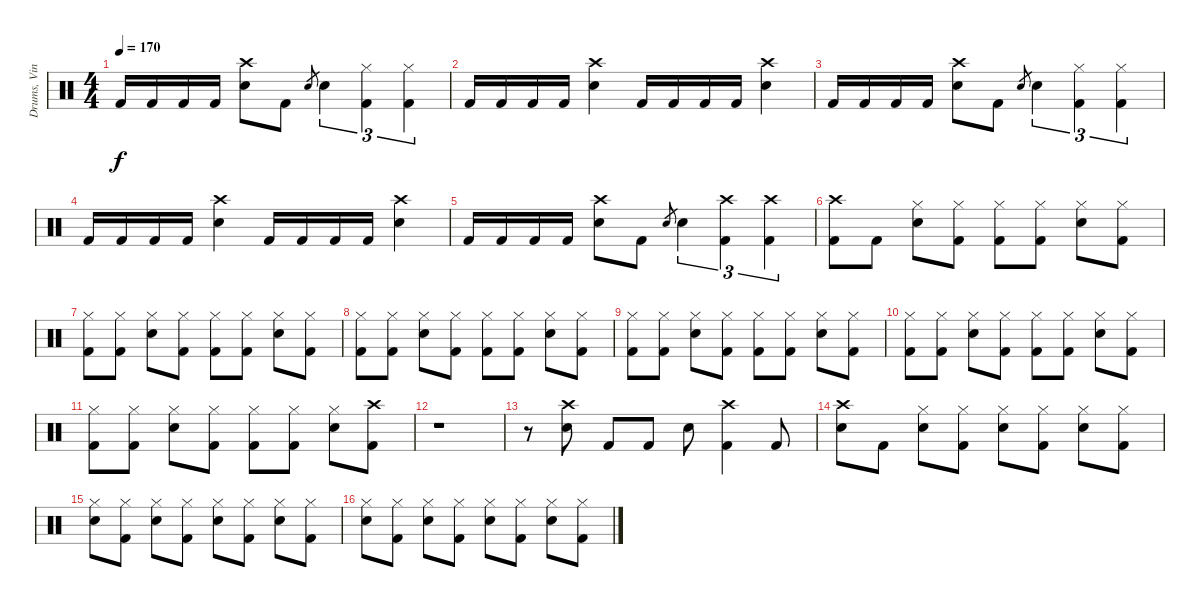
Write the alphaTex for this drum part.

\track ("Drums, Vinnie" "Drums, Vin") {instrument percussion}
\staff {score}
\articulation defaults
\ts (4 4)
\tempo 170
\clef neutral
\ks c "Kick (hit) 2".16{dy f} "Kick (hit) 2".16 "Kick (hit) 2".16 "Kick (hit) 2".16
("Crash high (hit)" "Electric Snare (hit)").8 "Kick (hit) 2".8 "Electric Snare (hit)".8{gr} "Electric Snare (hit)".4{tu (3 2)} ("Hi-Hat (closed)" "Kick (hit) 2").4{tu (3 2)} ("Hi-Hat (closed)" "Kick (hit) 2").4{tu (3 2)} |
"Kick (hit) 2".16 "Kick (hit) 2".16 "Kick (hit) 2".16 "Kick (hit) 2".16 ("Crash high (hit)" "Electric Snare (hit)").4 "Kick (hit) 2".16 "Kick (hit) 2".16 "Kick (hit) 2".16 "Kick (hit) 2".16 ("Crash high (hit)" "Electric Snare (hit)").4 |
"Kick (hit) 2".16 "Kick (hit) 2".16 "Kick (hit) 2".16 "Kick (hit) 2".16 ("Crash high (hit)" "Electric Snare (hit)").8 "Kick (hit) 2".8 "Electric Snare (hit)".8{gr} "Electric Snare (hit)".4{tu (3 2)} ("Hi-Hat (closed)" "Kick (hit) 2").4{tu (3 2)} ("Hi-Hat (closed)" "Kick (hit) 2").4{tu (3 2)} |
"Kick (hit) 2".16 "Kick (hit) 2".16 "Kick (hit) 2".16 "Kick (hit) 2".16 ("Crash high (hit)" "Electric Snare (hit)").4 "Kick (hit) 2".16 "Kick (hit) 2".16 "Kick (hit) 2".16 "Kick (hit) 2".16 ("Crash high (hit)" "Electric Snare (hit)").4 |
"Kick (hit) 2".16 "Kick (hit) 2".16 "Kick (hit) 2".16 "Kick (hit) 2".16 ("Crash high (hit)" "Electric Snare (hit)").8 "Kick (hit) 2".8 "Electric Snare (hit)".8{gr} "Electric Snare (hit)".4{tu (3 2)} ("Crash high (hit)" "Kick (hit) 2").4{tu (3 2)} ("Crash high (hit)" "Kick (hit) 2").4{tu (3 2)} |
("Crash high (hit)" "Kick (hit) 2").8 "Kick (hit) 2".8 ("Hi-Hat (closed)" "Electric Snare (hit)").8 ("Hi-Hat (closed)" "Kick (hit) 2").8 ("Hi-Hat (closed)" "Kick (hit) 2").8 ("Hi-Hat (closed)" "Kick (hit) 2").8 ("Hi-Hat (closed)" "Electric Snare (hit)").8 ("Hi-Hat (closed)" "Kick (hit) 2").8 |
("Hi-Hat (closed)" "Kick (hit) 2").8 ("Hi-Hat (closed)" "Kick (hit) 2").8 ("Hi-Hat (closed)" "Electric Snare (hit)").8 ("Hi-Hat (closed)" "Kick (hit) 2").8 ("Hi-Hat (closed)" "Kick (hit) 2").8 ("Hi-Hat (closed)" "Kick (hit) 2").8 ("Hi-Hat (closed)" "Electric Snare (hit)").8 ("Hi-Hat (closed)" "Kick (hit) 2").8 |
("Hi-Hat (closed)" "Kick (hit) 2").8 ("Hi-Hat (closed)" "Kick (hit) 2").8 ("Hi-Hat (closed)" "Electric Snare (hit)").8 ("Hi-Hat (closed)" "Kick (hit) 2").8 ("Hi-Hat (closed)" "Kick (hit) 2").8 ("Hi-Hat (closed)" "Kick (hit) 2").8 ("Hi-Hat (closed)" "Electric Snare (hit)").8 ("Hi-Hat (closed)" "Kick (hit) 2").8 |
("Hi-Hat (closed)" "Kick (hit) 2").8 ("Hi-Hat (closed)" "Kick (hit) 2").8 ("Hi-Hat (closed)" "Electric Snare (hit)").8 ("Hi-Hat (closed)" "Kick (hit) 2").8 ("Hi-Hat (closed)" "Kick (hit) 2").8 ("Hi-Hat (closed)" "Kick (hit) 2").8 ("Hi-Hat (closed)" "Electric Snare (hit)").8 ("Hi-Hat (closed)" "Kick (hit) 2").8 |
("Hi-Hat (closed)" "Kick (hit) 2").8 ("Hi-Hat (closed)" "Kick (hit) 2").8 ("Hi-Hat (closed)" "Electric Snare (hit)").8 ("Hi-Hat (closed)" "Kick (hit) 2").8 ("Hi-Hat (closed)" "Kick (hit) 2").8 ("Hi-Hat (closed)" "Kick (hit) 2").8 ("Hi-Hat (closed)" "Electric Snare (hit)").8 ("Hi-Hat (closed)" "Kick (hit) 2").8 |
("Hi-Hat (closed)" "Kick (hit) 2").8 ("Hi-Hat (closed)" "Kick (hit) 2").8 ("Hi-Hat (closed)" "Electric Snare (hit)").8 ("Hi-Hat (closed)" "Kick (hit) 2").8 ("Hi-Hat (closed)" "Kick (hit) 2").8 ("Hi-Hat (closed)" "Kick (hit) 2").8 ("Hi-Hat (closed)" "Electric Snare (hit)").8 ("Crash high (hit)" "Kick (hit) 2").8 |
r.1 |
r.8 ("Crash high (hit)" "Electric Snare (hit)").8 "Kick (hit) 2".8 "Kick (hit) 2".8 "Electric Snare (hit)".8 ("Crash high (hit)" "Kick (hit) 2").4 "Kick (hit) 2".8 |
("Crash high (hit)" "Electric Snare (hit)").8 "Kick (hit) 2".8 ("Hi-Hat (closed)" "Electric Snare (hit)").8 ("Hi-Hat (closed)" "Kick (hit) 2").8 ("Hi-Hat (closed)" "Electric Snare (hit)").8 ("Hi-Hat (closed)" "Kick (hit) 2").8 ("Hi-Hat (closed)" "Electric Snare (hit)").8 ("Hi-Hat (closed)" "Kick (hit) 2").8 |
("Hi-Hat (closed)" "Electric Snare (hit)").8 ("Hi-Hat (closed)" "Kick (hit) 2").8 ("Hi-Hat (closed)" "Electric Snare (hit)").8 ("Hi-Hat (closed)" "Kick (hit) 2").8 ("Hi-Hat (closed)" "Electric Snare (hit)").8 ("Hi-Hat (closed)" "Kick (hit) 2").8 ("Hi-Hat (closed)" "Electric Snare (hit)").8 ("Hi-Hat (closed)" "Kick (hit) 2").8 |
("Hi-Hat (closed)" "Electric Snare (hit)").8 ("Hi-Hat (closed)" "Kick (hit) 2").8 ("Hi-Hat (closed)" "Electric Snare (hit)").8 ("Hi-Hat (closed)" "Kick (hit) 2").8 ("Hi-Hat (closed)" "Electric Snare (hit)").8 ("Hi-Hat (closed)" "Kick (hit) 2").8 ("Hi-Hat (closed)" "Electric Snare (hit)").8 ("Hi-Hat (closed)" "Kick (hit) 2").8
